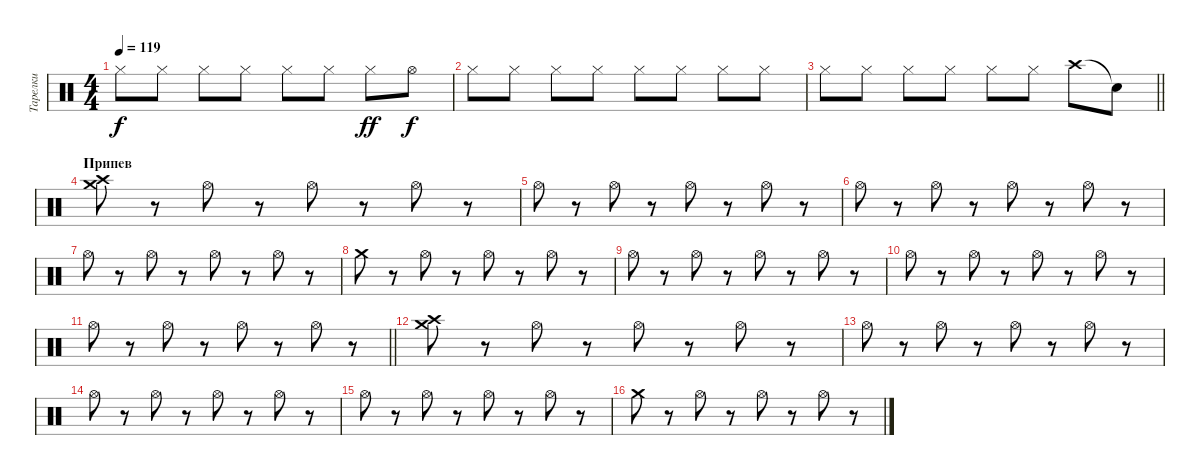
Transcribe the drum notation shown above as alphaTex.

\track ("Тарелки" "Тарелки") {instrument percussion}
\staff {score}
\articulation defaults
\ts (4 4)
\tempo 119
\clef neutral
\ks c "Hi-Hat (closed)".8{dy f} "Hi-Hat (closed)".8 "Hi-Hat (closed)".8 "Hi-Hat (closed)".8 "Hi-Hat (closed)".8 "Hi-Hat (closed)".8 "Hi-Hat (closed)".8{dy ff} "Hi-Hat (open)".8{dy f}
|
"Hi-Hat (closed)".8 "Hi-Hat (closed)".8 "Hi-Hat (closed)".8 "Hi-Hat (closed)".8 "Hi-Hat (closed)".8 "Hi-Hat (closed)".8 "Hi-Hat (closed)".8 "Hi-Hat (closed)".8 |
\barLineRight lightlight "Hi-Hat (closed)".8 "Hi-Hat (closed)".8 "Hi-Hat (closed)".8 "Hi-Hat (closed)".8 "Hi-Hat (closed)".8 "Hi-Hat (closed)".8 "Crash high (hit)".8 "Snare (hit)"{t}.8
|
\section ("" "Припев")
("Crash high (hit)" "Crash medium (hit)").8 r.8 "Hi-Hat (open)".8 r.8 "Hi-Hat (open)".8 r.8 "Hi-Hat (open)".8 r.8 |
"Hi-Hat (open)".8 r.8 "Hi-Hat (open)".8 r.8 "Hi-Hat (open)".8 r.8 "Hi-Hat (open)".8 r.8 |
"Hi-Hat (open)".8 r.8 "Hi-Hat (open)".8 r.8 "Hi-Hat (open)".8 r.8 "Hi-Hat (open)".8 r.8 |
"Hi-Hat (open)".8 r.8 "Hi-Hat (open)".8 r.8 "Hi-Hat (open)".8 r.8 "Hi-Hat (open)".8 r.8 |
"Crash medium (hit)".8 r.8 "Hi-Hat (open)".8 r.8 "Hi-Hat (open)".8 r.8 "Hi-Hat (open)".8 r.8 |
"Hi-Hat (open)".8 r.8 "Hi-Hat (open)".8 r.8 "Hi-Hat (open)".8 r.8 "Hi-Hat (open)".8 r.8 |
"Hi-Hat (open)".8 r.8 "Hi-Hat (open)".8 r.8 "Hi-Hat (open)".8 r.8 "Hi-Hat (open)".8 r.8 |
\barLineRight lightlight "Hi-Hat (open)".8
r.8 "Hi-Hat (open)".8 r.8 "Hi-Hat (open)".8 r.8 "Hi-Hat (open)".8 r.8 |
("Crash high (hit)" "Crash medium (hit)").8 r.8 "Hi-Hat (open)".8 r.8 "Hi-Hat (open)".8 r.8 "Hi-Hat (open)".8 r.8 |
"Hi-Hat (open)".8 r.8 "Hi-Hat (open)".8 r.8 "Hi-Hat (open)".8 r.8 "Hi-Hat (open)".8 r.8 |
"Hi-Hat (open)".8 r.8 "Hi-Hat (open)".8 r.8 "Hi-Hat (open)".8 r.8 "Hi-Hat (open)".8 r.8 |
"Hi-Hat (open)".8 r.8 "Hi-Hat (open)".8 r.8 "Hi-Hat (open)".8 r.8 "Hi-Hat (open)".8 r.8 |
"Crash medium (hit)".8 r.8 "Hi-Hat (open)".8 r.8 "Hi-Hat (open)".8 r.8 "Hi-Hat (open)".8 r.8
